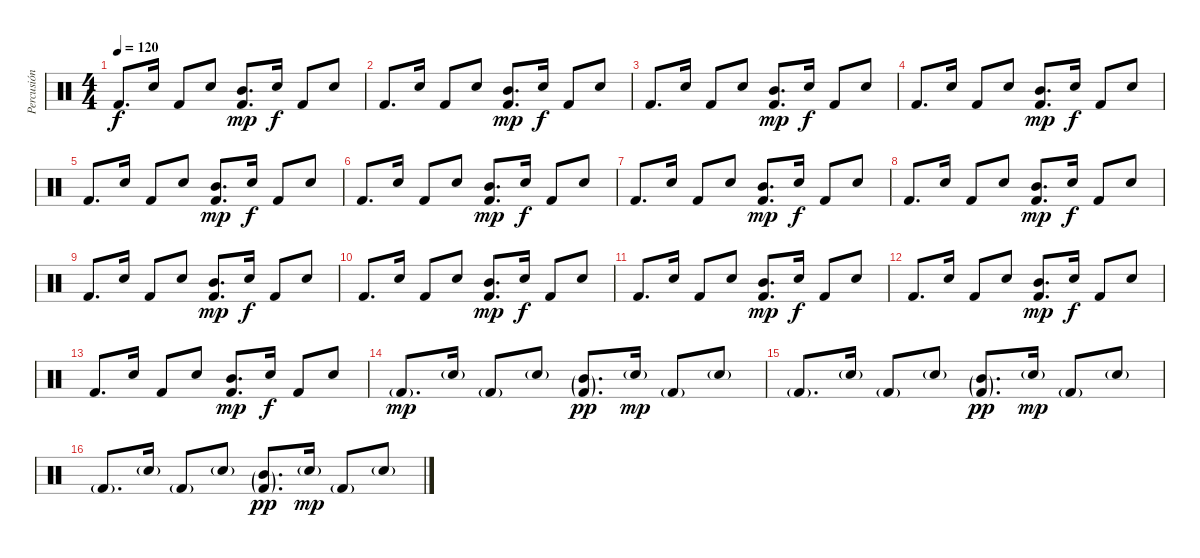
\track ("Percusión" "Percusión") {instrument percussion}
\staff {score}
\articulation defaults
\ts (4 4)
\tempo 120
\clef neutral
\ks c "Kick (hit) 2".8{d dy f} "Electric Snare (hit)".16 "Kick (hit) 2".8 "Electric Snare (hit)".8
("Kick (hit) 2" "Mid Tom (hit)").8{d dy mp} "Electric Snare (hit)".16{dy f} "Kick (hit) 2".8 "Electric Snare (hit)".8 |
"Kick (hit) 2".8{d} "Electric Snare (hit)".16 "Kick (hit) 2".8 "Electric Snare (hit)".8 ("Kick (hit) 2" "Mid Tom (hit)").8{d dy mp} "Electric Snare (hit)".16{dy f} "Kick (hit) 2".8 "Electric Snare (hit)".8 |
"Kick (hit) 2".8{d} "Electric Snare (hit)".16 "Kick (hit) 2".8 "Electric Snare (hit)".8 ("Kick (hit) 2" "Mid Tom (hit)").8{d dy mp} "Electric Snare (hit)".16{dy f} "Kick (hit) 2".8 "Electric Snare (hit)".8 |
"Kick (hit) 2".8{d} "Electric Snare (hit)".16 "Kick (hit) 2".8 "Electric Snare (hit)".8 ("Kick (hit) 2" "Mid Tom (hit)").8{d dy mp} "Electric Snare (hit)".16{dy f} "Kick (hit) 2".8 "Electric Snare (hit)".8 |
"Kick (hit) 2".8{d} "Electric Snare (hit)".16 "Kick (hit) 2".8 "Electric Snare (hit)".8 ("Kick (hit) 2" "Mid Tom (hit)").8{d dy mp} "Electric Snare (hit)".16{dy f} "Kick (hit) 2".8 "Electric Snare (hit)".8 |
"Kick (hit) 2".8{d} "Electric Snare (hit)".16 "Kick (hit) 2".8 "Electric Snare (hit)".8 ("Kick (hit) 2" "Mid Tom (hit)").8{d dy mp} "Electric Snare (hit)".16{dy f} "Kick (hit) 2".8 "Electric Snare (hit)".8 |
"Kick (hit) 2".8{d} "Electric Snare (hit)".16 "Kick (hit) 2".8 "Electric Snare (hit)".8 ("Kick (hit) 2" "Mid Tom (hit)").8{d dy mp} "Electric Snare (hit)".16{dy f} "Kick (hit) 2".8 "Electric Snare (hit)".8 |
"Kick (hit) 2".8{d} "Electric Snare (hit)".16 "Kick (hit) 2".8 "Electric Snare (hit)".8 ("Kick (hit) 2" "Mid Tom (hit)").8{d dy mp} "Electric Snare (hit)".16{dy f} "Kick (hit) 2".8 "Electric Snare (hit)".8 |
"Kick (hit) 2".8{d} "Electric Snare (hit)".16 "Kick (hit) 2".8 "Electric Snare (hit)".8 ("Kick (hit) 2" "Mid Tom (hit)").8{d dy mp} "Electric Snare (hit)".16{dy f} "Kick (hit) 2".8 "Electric Snare (hit)".8 |
"Kick (hit) 2".8{d} "Electric Snare (hit)".16 "Kick (hit) 2".8 "Electric Snare (hit)".8 ("Kick (hit) 2" "Mid Tom (hit)").8{d dy mp} "Electric Snare (hit)".16{dy f} "Kick (hit) 2".8 "Electric Snare (hit)".8 |
"Kick (hit) 2".8{d} "Electric Snare (hit)".16 "Kick (hit) 2".8 "Electric Snare (hit)".8 ("Kick (hit) 2" "Mid Tom (hit)").8{d dy mp} "Electric Snare (hit)".16{dy f} "Kick (hit) 2".8 "Electric Snare (hit)".8 |
"Kick (hit) 2".8{d} "Electric Snare (hit)".16 "Kick (hit) 2".8 "Electric Snare (hit)".8 ("Kick (hit) 2" "Mid Tom (hit)").8{d dy mp} "Electric Snare (hit)".16{dy f} "Kick (hit) 2".8 "Electric Snare (hit)".8 |
"Kick (hit) 2".8{d} "Electric Snare (hit)".16 "Kick (hit) 2".8 "Electric Snare (hit)".8 ("Kick (hit) 2" "Mid Tom (hit)").8{d dy mp} "Electric Snare (hit)".16{dy f} "Kick (hit) 2".8 "Electric Snare (hit)".8 |
"Kick (hit) 2"{g}.8{d dy mp} "Electric Snare (hit)"{g}.16 "Kick (hit) 2"{g}.8 "Electric Snare (hit)"{g}.8 ("Kick (hit) 2"{g} "Mid Tom (hit)"{g}).8{d dy pp} "Electric Snare (hit)"{g}.16{dy mp} "Kick (hit) 2"{g}.8 "Electric Snare (hit)"{g}.8 |
"Kick (hit) 2"{g}.8{d} "Electric Snare (hit)"{g}.16 "Kick (hit) 2"{g}.8 "Electric Snare (hit)"{g}.8 ("Kick (hit) 2"{g} "Mid Tom (hit)"{g}).8{d dy pp} "Electric Snare (hit)"{g}.16{dy mp} "Kick (hit) 2"{g}.8 "Electric Snare (hit)"{g}.8 |
"Kick (hit) 2"{g}.8{d} "Electric Snare (hit)"{g}.16 "Kick (hit) 2"{g}.8 "Electric Snare (hit)"{g}.8 ("Kick (hit) 2"{g} "Mid Tom (hit)"{g}).8{d dy pp} "Electric Snare (hit)"{g}.16{dy mp} "Kick (hit) 2"{g}.8 "Electric Snare (hit)"{g}.8
